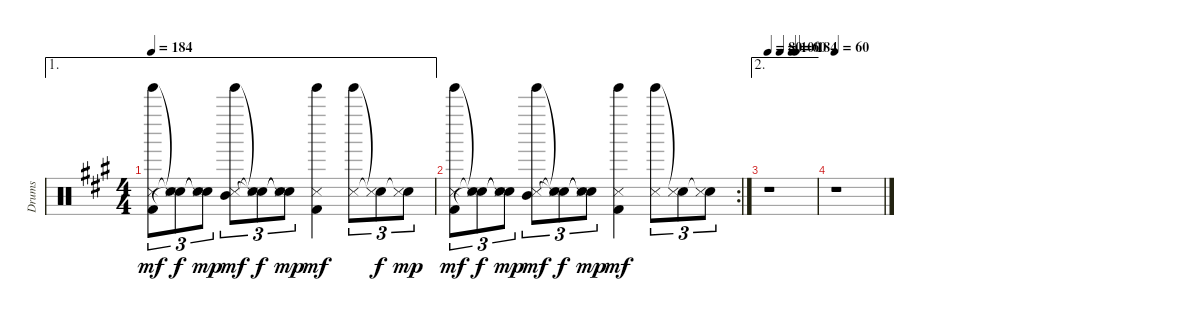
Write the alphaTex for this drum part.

\track ("Drums" "Drums") {instrument percussion}
\staff {score}
\articulation defaults
\ae 1
\ts (4 4)
\tempo 184
\clef neutral
\ks f#minor
("Tinkle Bell (hit)" "Metronome (hit)" "Kick (hit) 2").8{tu (3 2) dy mf} ("Snare (hit)"{t} "Metronome (hit)"{t} "Snare (hit)"{t}).8{tu (3 2) dy f} ("Snare (hit)"{t} "Metronome (hit)" "Snare (hit)"{t}).8{tu (3 2) dy mp} ("Tinkle Bell (hit)" "Metronome (hit)" "Mid Tom (hit)").8{tu (3 2) dy mf} ("Snare (hit)"{t} "Metronome (hit)"{t} "Snare (hit)"{t}).8{tu (3 2) dy f} ("Snare (hit)"{t} "Metronome (hit)" "Snare (hit)"{t}).8{tu (3 2) dy mp} ("Tinkle Bell (hit)" "Metronome (hit)" "Kick (hit) 2").4{dy mf} ("Tinkle Bell (hit)" "Metronome (hit)").8{tu (3 2)} ("Snare (hit)"{t} "Metronome (hit)"{t}).8{tu (3 2) dy f} ("Snare (hit)"{t} "Metronome (hit)").8{tu (3 2) dy mp} |
\rc 2
("Tinkle Bell (hit)" "Metronome (hit)" "Kick (hit) 2").8{tu (3 2) dy mf} ("Snare (hit)"{t} "Metronome (hit)"{t} "Snare (hit)"{t}).8{tu (3 2) dy f} ("Snare (hit)"{t} "Metronome (hit)" "Snare (hit)"{t}).8{tu (3 2) dy mp} ("Tinkle Bell (hit)" "Metronome (hit)" "Mid Tom (hit)").8{tu (3 2) dy mf} ("Snare (hit)"{t} "Metronome (hit)"{t} "Snare (hit)"{t}).8{tu (3 2) dy f} ("Snare (hit)"{t} "Metronome (hit)" "Snare (hit)"{t}).8{tu (3 2) dy mp} ("Tinkle Bell (hit)" "Metronome (hit)" "Kick (hit) 2").4{dy mf} ("Tinkle Bell (hit)" "Metronome (hit)").8{tu (3 2)} ("Snare (hit)"{t} "Metronome (hit)").8{tu (3 2)} ("Snare (hit)"{t} "Metronome (hit)").8{tu (3 2)} |
\ae 2
\tempo 80
\tempo (100 0.25)
\tempo (60 0.5)
\tempo (184 0.5833333333333334)
r.1 |
\tempo 60
r.1
